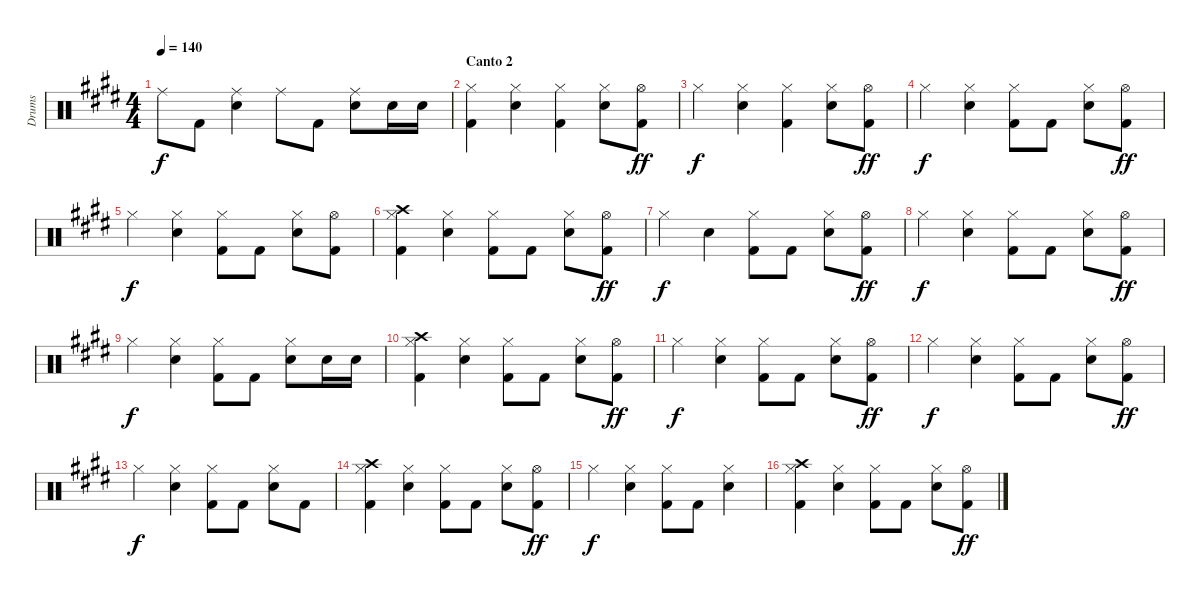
\track ("Drums" "Drums") {instrument percussion}
\staff {score}
\articulation defaults
\ts (4 4)
\tempo 140
\clef neutral
\ks c#minor "Ride (middle)".8{dy f} "Kick (hit) 2".8
("Ride (middle)" "Snare (hit) 2").4 "Ride (middle)".8 "Kick (hit) 2".8 ("Ride (middle)" "Snare (hit) 2").8 "Snare (hit) 2".16 "Snare (hit) 2".16 |
\section ("" "Canto 2")
("Hi-Hat (closed)" "Kick (hit) 2").4 ("Hi-Hat (closed)" "Snare (hit) 2").4 ("Hi-Hat (closed)" "Kick (hit) 2").4 ("Hi-Hat (closed)" "Snare (hit) 2").8 ("Hi-Hat (open)" "Kick (hit) 2").8{dy ff} |
"Hi-Hat (closed)".4{dy f} ("Hi-Hat (closed)" "Snare (hit) 2").4 ("Hi-Hat (closed)" "Kick (hit) 2").4 ("Hi-Hat (closed)" "Snare (hit) 2").8 ("Hi-Hat (open)" "Kick (hit) 2").8{dy ff} |
"Hi-Hat (closed)".4{dy f} ("Hi-Hat (closed)" "Snare (hit) 2").4 ("Hi-Hat (closed)" "Kick (hit) 2").8 "Kick (hit) 2".8 ("Hi-Hat (closed)" "Snare (hit) 2").8 ("Hi-Hat (open)" "Kick (hit) 2").8{dy ff} |
"Hi-Hat (closed)".4{dy f} ("Hi-Hat (closed)" "Snare (hit) 2").4 ("Hi-Hat (closed)" "Kick (hit) 2").8 "Kick (hit) 2".8 ("Hi-Hat (closed)" "Snare (hit) 2").8 ("Hi-Hat (open)" "Kick (hit) 2").8 |
("Hi-Hat (closed)" "Crash high (hit)" "Kick (hit) 2").4 ("Hi-Hat (closed)" "Snare (hit) 2").4 ("Hi-Hat (closed)" "Kick (hit) 2").8 "Kick (hit) 2".8 ("Hi-Hat (closed)" "Snare (hit) 2").8 ("Hi-Hat (open)" "Kick (hit) 2").8{dy ff} |
"Hi-Hat (closed)".4{dy f} "Snare (hit) 2".4 ("Hi-Hat (closed)" "Kick (hit) 2").8 "Kick (hit) 2".8 ("Hi-Hat (closed)" "Snare (hit) 2").8 ("Hi-Hat (open)" "Kick (hit) 2").8{dy ff} |
"Hi-Hat (closed)".4{dy f} ("Hi-Hat (closed)" "Snare (hit) 2").4 ("Hi-Hat (closed)" "Kick (hit) 2").8 "Kick (hit) 2".8 ("Hi-Hat (closed)" "Snare (hit) 2").8 ("Hi-Hat (open)" "Kick (hit) 2").8{dy ff} |
"Hi-Hat (closed)".4{dy f} ("Hi-Hat (closed)" "Snare (hit) 2").4 ("Hi-Hat (closed)" "Kick (hit) 2").8 "Kick (hit) 2".8 ("Hi-Hat (closed)" "Snare (hit) 2").8 "Snare (hit) 2".16 "Snare (hit) 2".16 |
("Hi-Hat (closed)" "Crash high (hit)" "Kick (hit) 2").4 ("Hi-Hat (closed)" "Snare (hit) 2").4 ("Hi-Hat (closed)" "Kick (hit) 2").8 "Kick (hit) 2".8 ("Hi-Hat (closed)" "Snare (hit) 2").8 ("Hi-Hat (open)" "Kick (hit) 2").8{dy ff} |
"Hi-Hat (closed)".4{dy f} ("Hi-Hat (closed)" "Snare (hit) 2").4 ("Hi-Hat (closed)" "Kick (hit) 2").8 "Kick (hit) 2".8 ("Hi-Hat (closed)" "Snare (hit) 2").8 ("Hi-Hat (open)" "Kick (hit) 2").8{dy ff} |
"Hi-Hat (closed)".4{dy f} ("Hi-Hat (closed)" "Snare (hit) 2").4 ("Hi-Hat (closed)" "Kick (hit) 2").8 "Kick (hit) 2".8 ("Hi-Hat (closed)" "Snare (hit) 2").8 ("Hi-Hat (open)" "Kick (hit) 2").8{dy ff} |
"Hi-Hat (closed)".4{dy f} ("Hi-Hat (closed)" "Snare (hit) 2").4 ("Hi-Hat (closed)" "Kick (hit) 2").8 "Kick (hit) 2".8 ("Hi-Hat (closed)" "Snare (hit) 2").8 "Kick (hit) 2".8 |
("Hi-Hat (closed)" "Crash high (hit)" "Kick (hit) 2").4 ("Hi-Hat (closed)" "Snare (hit) 2").4 ("Hi-Hat (closed)" "Kick (hit) 2").8 "Kick (hit) 2".8 ("Hi-Hat (closed)" "Snare (hit) 2").8 ("Hi-Hat (open)" "Kick (hit) 2").8{dy ff} |
"Hi-Hat (closed)".4{dy f} ("Hi-Hat (closed)" "Snare (hit) 2").4 ("Hi-Hat (closed)" "Kick (hit) 2").8 "Kick (hit) 2".8 ("Hi-Hat (closed)" "Snare (hit) 2").4 |
("Hi-Hat (closed)" "Crash high (hit)" "Kick (hit) 2").4 ("Hi-Hat (closed)" "Snare (hit) 2").4 ("Hi-Hat (closed)" "Kick (hit) 2").8 "Kick (hit) 2".8 ("Hi-Hat (closed)" "Snare (hit) 2").8 ("Hi-Hat (open)" "Kick (hit) 2").8{dy ff}
